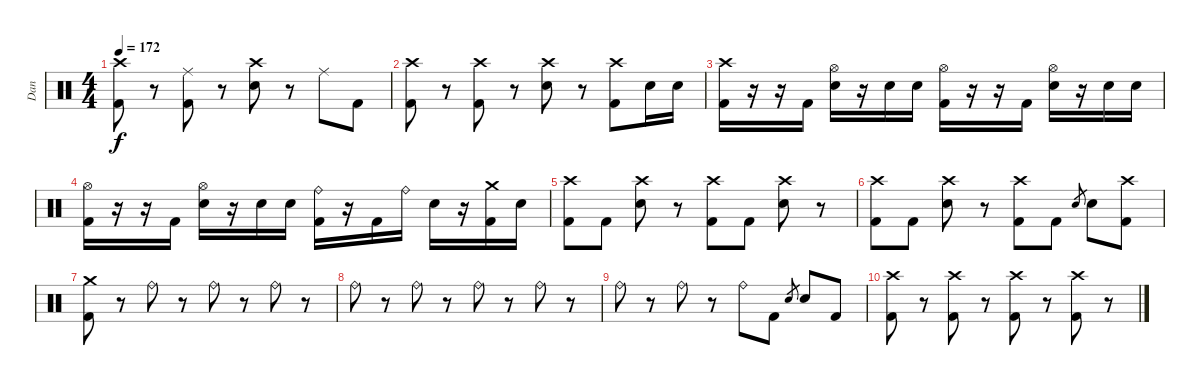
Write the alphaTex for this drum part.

\track ("Dan" "Dan") {instrument percussion}
\staff {score}
\articulation defaults
\ts (4 4)
\tempo 172
\clef neutral
\ks c
("Crash high (hit)" "Kick (hit) 2").8{dy f} r.8 ("Ride (middle)" "Kick (hit) 2").8 r.8 ("Crash high (hit)" "Electric Snare (hit)").8 r.8 "Ride (middle)".8 "Kick (hit) 2".8 |
("Crash high (hit)" "Kick (hit) 2").8 r.8 ("Crash high (hit)" "Kick (hit) 2").8 r.8 ("Crash high (hit)" "Electric Snare (hit)").8 r.8 ("Crash high (hit)" "Kick (hit) 2").8 "Electric Snare (hit)".16 "Electric Snare (hit)".16 |
("Crash high (hit)" "Kick (hit) 2").16 r.16 r.16 "Kick (hit) 2".16 ("Hi-Hat (open)" "Electric Snare (hit)").16 r.16 "Electric Snare (hit)".16 "Electric Snare (hit)".16 ("Hi-Hat (open)" "Kick (hit) 2").16 r.16 r.16 "Kick (hit) 2".16 ("Hi-Hat (open)" "Electric Snare (hit)").16 r.16 "Electric Snare (hit)".16 "Electric Snare (hit)".16 |
("Hi-Hat (open)" "Kick (hit) 2").16 r.16 r.16 "Kick (hit) 2".16 ("Hi-Hat (open)" "Electric Snare (hit)").16 r.16 "Electric Snare (hit)".16 "Electric Snare (hit)".16 ("Ride (bell)" "Kick (hit) 2").16 r.16 "Kick (hit) 2".16 "Ride (bell)".16 "Electric Snare (hit)".16 r.16 ("Crash medium (hit)" "Kick (hit) 2").16 "Electric Snare (hit)".16 |
("Crash high (hit)" "Kick (hit) 2").8 "Kick (hit) 2".8 ("Crash high (hit)" "Electric Snare (hit)").8 r.8 ("Crash high (hit)" "Kick (hit) 2").8 "Kick (hit) 2".8 ("Crash high (hit)" "Electric Snare (hit)").8 r.8 |
("Crash high (hit)" "Kick (hit) 2").8 "Kick (hit) 2".8 ("Crash high (hit)" "Electric Snare (hit)").8 r.8 ("Crash high (hit)" "Kick (hit) 2").8 "Kick (hit) 2".8 "Electric Snare (hit)".8{gr} "Electric Snare (hit)".8 ("Crash high (hit)" "Kick (hit) 2").8 |
("Crash medium (hit)" "Kick (hit) 2").8 r.8 "Ride (bell)".8 r.8 "Ride (bell)".8 r.8 "Ride (bell)".8 r.8 |
"Ride (bell)".8 r.8 "Ride (bell)".8 r.8 "Ride (bell)".8 r.8 "Ride (bell)".8 r.8 |
"Ride (bell)".8 r.8 "Ride (bell)".8 r.8 "Ride (bell)".8 "Kick (hit) 2".8 "Electric Snare (hit)".8{gr} "Electric Snare (hit)".8 "Kick (hit) 2".8 |
("Crash high (hit)" "Kick (hit) 2").8 r.8 ("Crash high (hit)" "Kick (hit) 2").8 r.8 ("Crash high (hit)" "Kick (hit) 2").8 r.8 ("Crash high (hit)" "Kick (hit) 2").8 r.8
